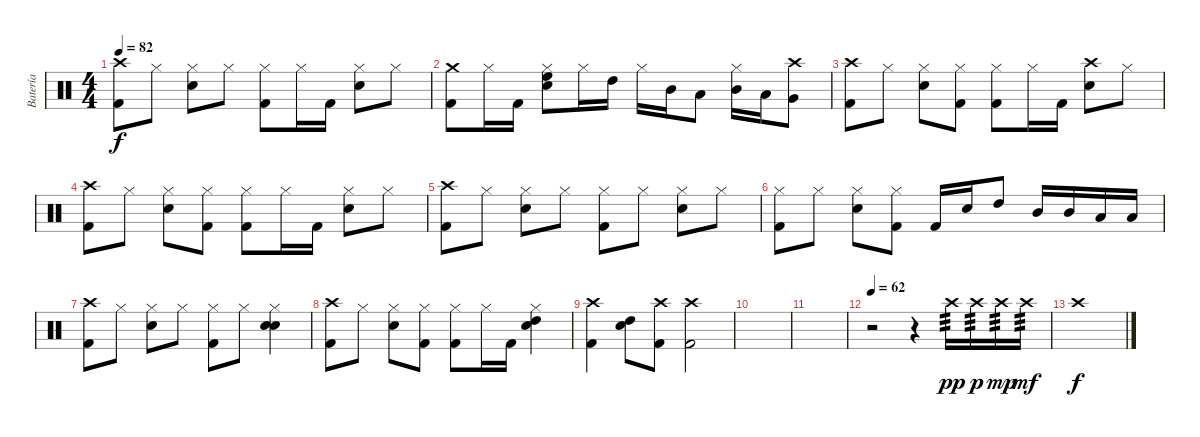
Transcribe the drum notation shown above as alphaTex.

\track ("Batería" "Batería") {instrument percussion}
\staff {score}
\articulation defaults
\ts (4 4)
\tempo 82
\clef neutral
\ks c
("Crash high (hit)" "Kick (hit) 2").8{dy f} "Hi-Hat (closed)".8 ("Hi-Hat (closed)" "Snare (hit) 2").8 "Hi-Hat (closed)".8 ("Hi-Hat (closed)" "Kick (hit) 2").8 "Hi-Hat (closed)".16 "Kick (hit) 2".16 ("Hi-Hat (closed)" "Snare (hit) 2").8 "Hi-Hat (closed)".8 |
("Crash medium (hit)" "Kick (hit) 2").8 "Hi-Hat (closed)".16 "Kick (hit) 2".16 ("Hi-Hat (closed)" "Snare (hit) 2" "High Floor Tom (hit)").8 "Hi-Hat (closed)".16 "High Tom (hit)".16 "Hi-Hat (closed)".16 "Mid Tom (hit)".16 "Low Tom (hit)".8 ("Hi-Hat (closed)" "Mid Tom (hit)").16 "Low Tom (hit)".16 ("Crash high (hit)" "Very Low Tom (hit)").8 |
("Crash high (hit)" "Kick (hit) 2").8 "Hi-Hat (closed)".8 ("Hi-Hat (closed)" "Snare (hit) 2").8 ("Hi-Hat (closed)" "Kick (hit) 2").8 ("Hi-Hat (closed)" "Kick (hit) 2").8 "Hi-Hat (closed)".16 "Kick (hit) 2".16 ("Crash high (hit)" "Snare (hit) 2").8 "Hi-Hat (closed)".8 |
("Crash high (hit)" "Kick (hit) 2").8 "Hi-Hat (closed)".8 ("Hi-Hat (closed)" "Snare (hit) 2").8 ("Hi-Hat (closed)" "Kick (hit) 2").8 ("Hi-Hat (closed)" "Kick (hit) 2").8 "Hi-Hat (closed)".16 "Kick (hit) 2".16 ("Hi-Hat (closed)" "Snare (hit) 2").8 "Hi-Hat (closed)".8 |
("Crash high (hit)" "Kick (hit) 2").8 "Hi-Hat (closed)".8 ("Hi-Hat (closed)" "Snare (hit) 2").8 "Hi-Hat (closed)".8 ("Hi-Hat (closed)" "Kick (hit) 2").8 "Hi-Hat (closed)".8 ("Hi-Hat (closed)" "Snare (hit) 2").8 "Hi-Hat (closed)".8 |
("Hi-Hat (closed)" "Kick (hit) 2").8 "Hi-Hat (closed)".8 ("Hi-Hat (closed)" "Snare (hit) 2").8 ("Hi-Hat (closed)" "Kick (hit) 2").8 "Kick (hit) 2".16 "Snare (hit) 2".16 "High Tom (hit)".8 "Mid Tom (hit)".16 "Mid Tom (hit)".16 "Low Tom (hit)".16 "Low Tom (hit)".16 |
("Crash high (hit)" "Kick (hit) 2").8 "Hi-Hat (closed)".8 ("Hi-Hat (closed)" "Snare (hit) 2").8 "Hi-Hat (closed)".8 ("Hi-Hat (closed)" "Kick (hit) 2").8 "Hi-Hat (closed)".8 ("Hi-Hat (closed)" "Snare (hit) 2" "Electric Snare (hit)").4 |
("Crash high (hit)" "Kick (hit) 2").8 "Hi-Hat (closed)".8 ("Hi-Hat (closed)" "Snare (hit) 2").8 ("Hi-Hat (closed)" "Kick (hit) 2").8 ("Hi-Hat (closed)" "Kick (hit) 2").8 "Hi-Hat (closed)".16 "Kick (hit) 2".16 ("Hi-Hat (closed)" "Snare (hit) 2" "High Tom (hit)").4 |
("Kick (hit) 2" "Crash high (hit)").4 ("High Tom (hit)" "Snare (hit) 2").8 ("Kick (hit) 2" "Crash high (hit)").8 ("Kick (hit) 2" "Crash high (hit)").2 |
|
|
\tempo 62
r.2 r.4 "Crash high (hit)".16{tp 3 dy pp} "Crash high (hit)".16{tp 3 dy p} "Crash high (hit)".16{tp 3 dy mp} "Crash high (hit)".16{tp 3 dy mf} |
"Crash high (hit)".1{dy f}
